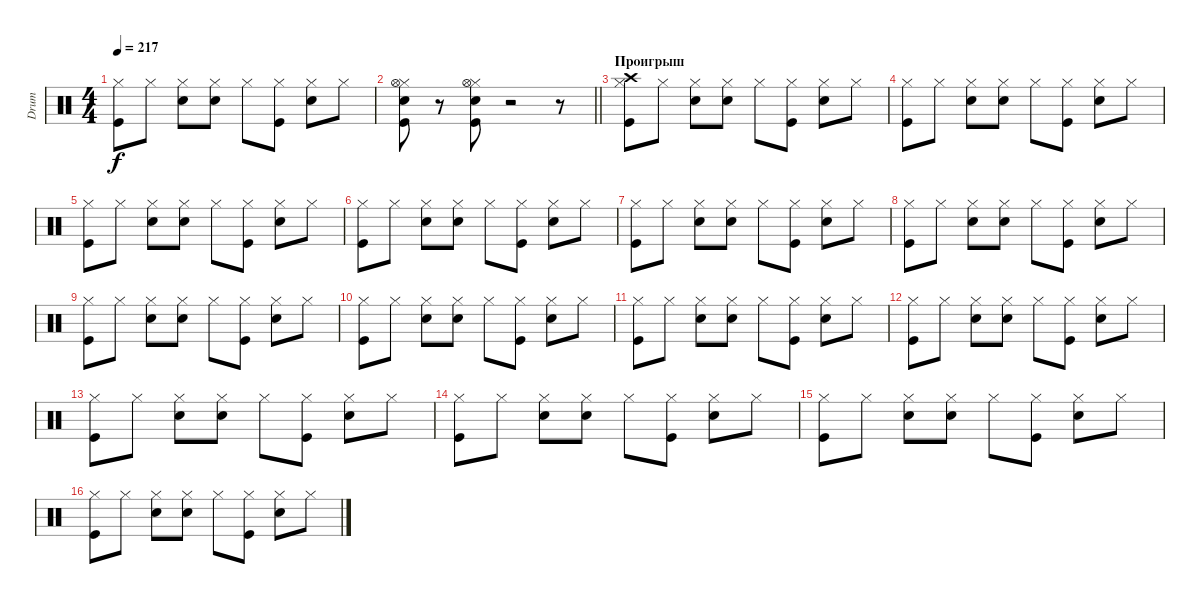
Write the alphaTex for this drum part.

\track ("Drum" "Drum") {instrument percussion}
\staff {score}
\articulation defaults
\ts (4 4)
\tempo 217
\clef neutral
\ks c
("Kick (hit)" "Hi-Hat (closed)").8{dy f} "Hi-Hat (closed)".8 ("Snare (hit) 2" "Hi-Hat (closed)").8 ("Snare (hit) 2" "Hi-Hat (closed)").8 "Hi-Hat (closed)".8 ("Kick (hit)" "Hi-Hat (closed)").8 ("Snare (hit) 2" "Hi-Hat (closed)").8 "Hi-Hat (closed)".8 |
\barLineRight lightlight
("Kick (hit)" "Snare (hit) 2" "Hi-Hat (closed)" "Hi-Hat (open)").8 r.8 ("Kick (hit)" "Snare (hit) 2" "Hi-Hat (closed)" "Hi-Hat (open)").8 r.2 r.8 |
\section ("" "Проигрыш")
("Kick (hit)" "Hi-Hat (closed)" "Crash high (hit)").8 "Hi-Hat (closed)".8 ("Snare (hit) 2" "Hi-Hat (closed)").8 ("Snare (hit) 2" "Hi-Hat (closed)").8 "Hi-Hat (closed)".8 ("Kick (hit)" "Hi-Hat (closed)").8 ("Snare (hit) 2" "Hi-Hat (closed)").8 "Hi-Hat (closed)".8 |
("Kick (hit)" "Hi-Hat (closed)").8 "Hi-Hat (closed)".8 ("Snare (hit) 2" "Hi-Hat (closed)").8 ("Snare (hit) 2" "Hi-Hat (closed)").8 "Hi-Hat (closed)".8 ("Kick (hit)" "Hi-Hat (closed)").8 ("Snare (hit) 2" "Hi-Hat (closed)").8 "Hi-Hat (closed)".8 |
("Kick (hit)" "Hi-Hat (closed)").8 "Hi-Hat (closed)".8 ("Snare (hit) 2" "Hi-Hat (closed)").8 ("Snare (hit) 2" "Hi-Hat (closed)").8 "Hi-Hat (closed)".8 ("Kick (hit)" "Hi-Hat (closed)").8 ("Snare (hit) 2" "Hi-Hat (closed)").8 "Hi-Hat (closed)".8 |
("Kick (hit)" "Hi-Hat (closed)").8 "Hi-Hat (closed)".8 ("Snare (hit) 2" "Hi-Hat (closed)").8 ("Snare (hit) 2" "Hi-Hat (closed)").8 "Hi-Hat (closed)".8 ("Kick (hit)" "Hi-Hat (closed)").8 ("Snare (hit) 2" "Hi-Hat (closed)").8 "Hi-Hat (closed)".8 |
("Kick (hit)" "Hi-Hat (closed)").8 "Hi-Hat (closed)".8 ("Snare (hit) 2" "Hi-Hat (closed)").8 ("Snare (hit) 2" "Hi-Hat (closed)").8 "Hi-Hat (closed)".8 ("Kick (hit)" "Hi-Hat (closed)").8 ("Snare (hit) 2" "Hi-Hat (closed)").8 "Hi-Hat (closed)".8 |
("Kick (hit)" "Hi-Hat (closed)").8 "Hi-Hat (closed)".8 ("Snare (hit) 2" "Hi-Hat (closed)").8 ("Snare (hit) 2" "Hi-Hat (closed)").8 "Hi-Hat (closed)".8 ("Kick (hit)" "Hi-Hat (closed)").8 ("Snare (hit) 2" "Hi-Hat (closed)").8 "Hi-Hat (closed)".8 |
("Kick (hit)" "Hi-Hat (closed)").8 "Hi-Hat (closed)".8 ("Snare (hit) 2" "Hi-Hat (closed)").8 ("Snare (hit) 2" "Hi-Hat (closed)").8 "Hi-Hat (closed)".8 ("Kick (hit)" "Hi-Hat (closed)").8 ("Snare (hit) 2" "Hi-Hat (closed)").8 "Hi-Hat (closed)".8 |
("Kick (hit)" "Hi-Hat (closed)").8 "Hi-Hat (closed)".8 ("Snare (hit) 2" "Hi-Hat (closed)").8 ("Snare (hit) 2" "Hi-Hat (closed)").8 "Hi-Hat (closed)".8 ("Kick (hit)" "Hi-Hat (closed)").8 ("Snare (hit) 2" "Hi-Hat (closed)").8 "Hi-Hat (closed)".8 |
("Kick (hit)" "Hi-Hat (closed)").8 "Hi-Hat (closed)".8 ("Snare (hit) 2" "Hi-Hat (closed)").8 ("Snare (hit) 2" "Hi-Hat (closed)").8 "Hi-Hat (closed)".8 ("Kick (hit)" "Hi-Hat (closed)").8 ("Snare (hit) 2" "Hi-Hat (closed)").8 "Hi-Hat (closed)".8 |
("Kick (hit)" "Hi-Hat (closed)").8 "Hi-Hat (closed)".8 ("Snare (hit) 2" "Hi-Hat (closed)").8 ("Snare (hit) 2" "Hi-Hat (closed)").8 "Hi-Hat (closed)".8 ("Kick (hit)" "Hi-Hat (closed)").8 ("Snare (hit) 2" "Hi-Hat (closed)").8 "Hi-Hat (closed)".8 |
("Kick (hit)" "Hi-Hat (closed)").8 "Hi-Hat (closed)".8 ("Snare (hit) 2" "Hi-Hat (closed)").8 ("Snare (hit) 2" "Hi-Hat (closed)").8 "Hi-Hat (closed)".8 ("Kick (hit)" "Hi-Hat (closed)").8 ("Snare (hit) 2" "Hi-Hat (closed)").8 "Hi-Hat (closed)".8 |
("Kick (hit)" "Hi-Hat (closed)").8 "Hi-Hat (closed)".8 ("Snare (hit) 2" "Hi-Hat (closed)").8 ("Snare (hit) 2" "Hi-Hat (closed)").8 "Hi-Hat (closed)".8 ("Kick (hit)" "Hi-Hat (closed)").8 ("Snare (hit) 2" "Hi-Hat (closed)").8 "Hi-Hat (closed)".8 |
("Kick (hit)" "Hi-Hat (closed)").8 "Hi-Hat (closed)".8 ("Snare (hit) 2" "Hi-Hat (closed)").8 ("Snare (hit) 2" "Hi-Hat (closed)").8 "Hi-Hat (closed)".8 ("Kick (hit)" "Hi-Hat (closed)").8 ("Snare (hit) 2" "Hi-Hat (closed)").8 "Hi-Hat (closed)".8 |
("Kick (hit)" "Hi-Hat (closed)").8 "Hi-Hat (closed)".8 ("Snare (hit) 2" "Hi-Hat (closed)").8 ("Snare (hit) 2" "Hi-Hat (closed)").8 "Hi-Hat (closed)".8 ("Kick (hit)" "Hi-Hat (closed)").8 ("Snare (hit) 2" "Hi-Hat (closed)").8 "Hi-Hat (closed)".8
